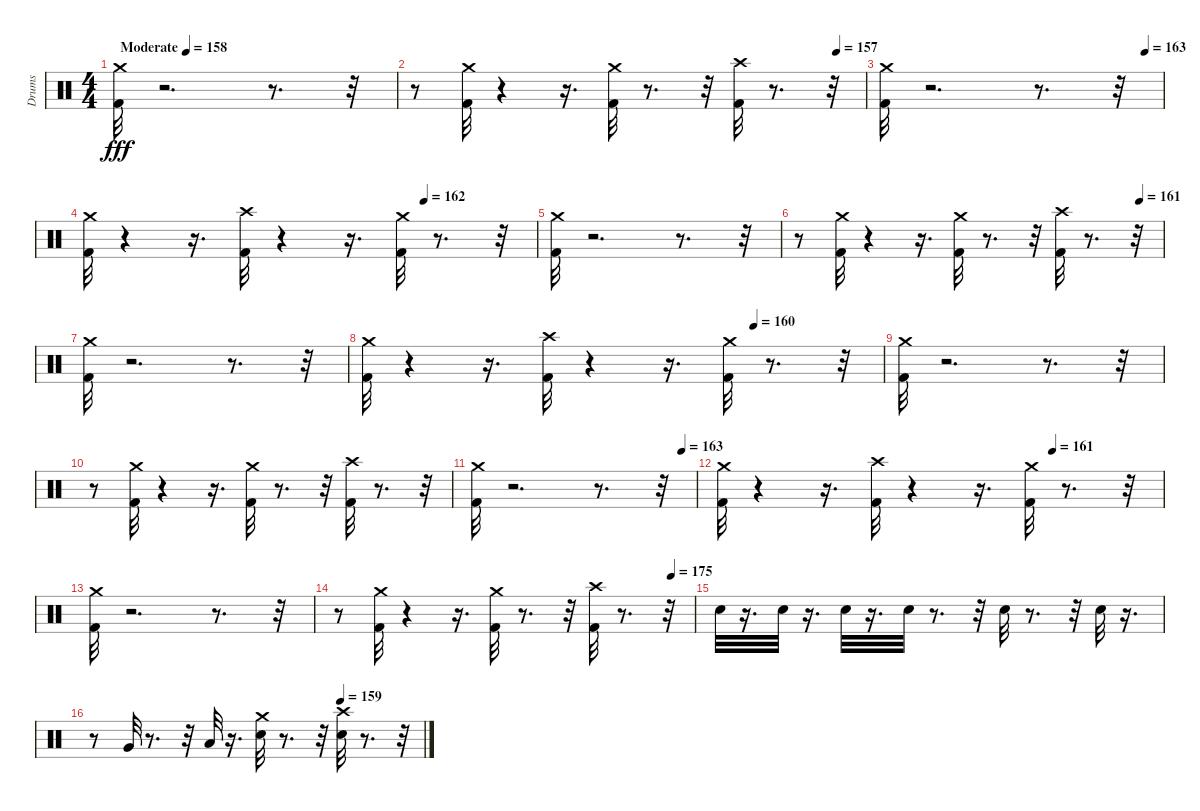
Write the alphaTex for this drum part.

\track ("Drums" "Drums") {instrument percussion}
\staff {score}
\articulation defaults
\ts (4 4)
\tempo (158 "Moderate")
\clef neutral
\ks c
("Crash medium (hit)" "Kick (hit) 2").32{dy fff} r.2{d} r.8{d} r.32 |
\tempo (157 0.9375)
r.8 ("Crash medium (hit)" "Kick (hit) 2").32 r.4 r.16{d} ("Kick (hit) 2" "Crash medium (hit)").32 r.8{d} r.32 ("Crash high (hit)" "Kick (hit) 2").32 r.8{d} r.32 |
\tempo (163 0.9375)
("Crash medium (hit)" "Kick (hit) 2").32 r.2{d} r.8{d} r.32 |
\tempo (162 0.75)
("Crash medium (hit)" "Kick (hit) 2").32 r.4 r.16{d} ("Crash high (hit)" "Kick (hit) 2").32 r.4 r.16{d} ("Kick (hit) 2" "Crash medium (hit)").32 r.8{d} r.32 |
("Crash medium (hit)" "Kick (hit) 2").32 r.2{d} r.8{d} r.32 |
\tempo (161 0.9375)
r.8 ("Crash medium (hit)" "Kick (hit) 2").32 r.4 r.16{d} ("Kick (hit) 2" "Crash medium (hit)").32 r.8{d} r.32 ("Crash high (hit)" "Kick (hit) 2").32 r.8{d} r.32 |
("Crash medium (hit)" "Kick (hit) 2").32 r.2{d} r.8{d} r.32 |
\tempo (160 0.75)
("Crash medium (hit)" "Kick (hit) 2").32 r.4 r.16{d} ("Crash high (hit)" "Kick (hit) 2").32 r.4 r.16{d} ("Kick (hit) 2" "Crash medium (hit)").32 r.8{d} r.32 |
("Crash medium (hit)" "Kick (hit) 2").32 r.2{d} r.8{d} r.32 |
r.8 ("Crash medium (hit)" "Kick (hit) 2").32 r.4 r.16{d} ("Kick (hit) 2" "Crash medium (hit)").32 r.8{d} r.32 ("Crash high (hit)" "Kick (hit) 2").32 r.8{d} r.32 |
\tempo (163 0.9375)
("Crash medium (hit)" "Kick (hit) 2").32 r.2{d} r.8{d} r.32 |
\tempo (161 0.75)
("Crash medium (hit)" "Kick (hit) 2").32 r.4 r.16{d} ("Crash high (hit)" "Kick (hit) 2").32 r.4 r.16{d} ("Kick (hit) 2" "Crash medium (hit)").32 r.8{d} r.32 |
("Crash medium (hit)" "Kick (hit) 2").32 r.2{d} r.8{d} r.32 |
\tempo (175 0.9375)
r.8 ("Crash medium (hit)" "Kick (hit) 2").32 r.4 r.16{d} ("Kick (hit) 2" "Crash medium (hit)").32 r.8{d} r.32 ("Crash high (hit)" "Kick (hit) 2").32 r.8{d} r.32 |
"Snare (hit) 2".32 r.16{d} "Snare (hit) 2".32 r.16{d} "Snare (hit) 2".32 r.16{d} "Snare (hit) 2".32 r.8{d} r.32 "Snare (hit) 2".32 r.8{d} r.32 "Snare (hit) 2".32 r.16{d} |
\tempo (159 0.75)
r.8 "Very Low Tom (hit)".32 r.8{d} r.32 "Low Floor Tom (hit)".32 r.16{d} ("Crash medium (hit)" "Snare (hit) 2").32 r.8{d} r.32 ("Crash high (hit)" "Snare (hit) 2").32 r.8{d} r.32
